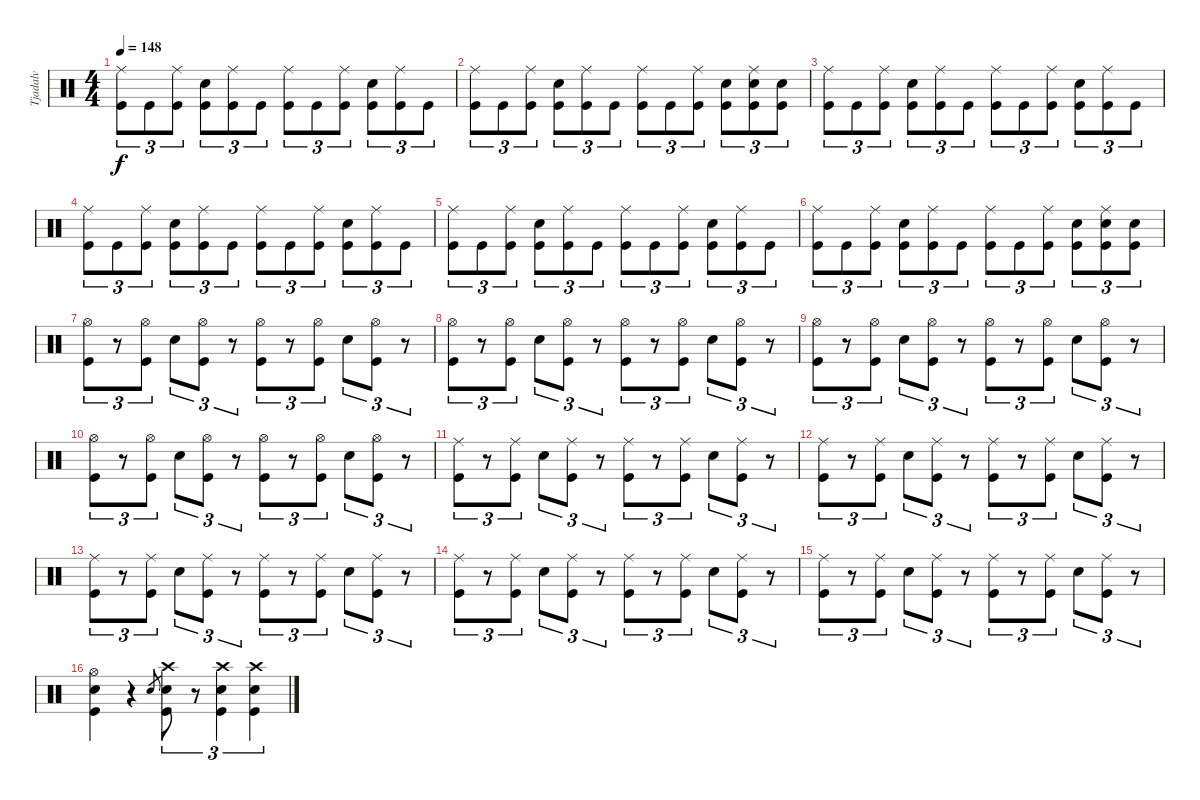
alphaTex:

\track ("Tjadalv    ( Drum )" "Tjadalv   ") {instrument percussion}
\staff {score}
\articulation defaults
\ts (4 4)
\tempo 148
\clef neutral
\ks c
("Ride (middle)" "Kick (hit)").8{tu (3 2) dy f} "Kick (hit)".8{tu (3 2)} ("Ride (middle)" "Kick (hit)").8{tu (3 2)} ("Electric Snare (hit)" "Kick (hit)").8{tu (3 2)} ("Ride (middle)" "Kick (hit)").8{tu (3 2)} "Kick (hit)".8{tu (3 2)} ("Ride (middle)" "Kick (hit)").8{tu (3 2)} "Kick (hit)".8{tu (3 2)} ("Ride (middle)" "Kick (hit)").8{tu (3 2)} ("Electric Snare (hit)" "Kick (hit)").8{tu (3 2)} ("Ride (middle)" "Kick (hit)").8{tu (3 2)} "Kick (hit)".8{tu (3 2)} |
("Ride (middle)" "Kick (hit)").8{tu (3 2)} "Kick (hit)".8{tu (3 2)} ("Ride (middle)" "Kick (hit)").8{tu (3 2)} ("Electric Snare (hit)" "Kick (hit)").8{tu (3 2)} ("Ride (middle)" "Kick (hit)").8{tu (3 2)} "Kick (hit)".8{tu (3 2)} ("Ride (middle)" "Kick (hit)").8{tu (3 2)} "Kick (hit)".8{tu (3 2)} ("Ride (middle)" "Kick (hit)").8{tu (3 2)} ("Electric Snare (hit)" "Kick (hit)").8{tu (3 2)} ("Ride (middle)" "Electric Snare (hit)" "Kick (hit)").8{tu (3 2)} ("Electric Snare (hit)" "Kick (hit)").8{tu (3 2)} |
("Ride (middle)" "Kick (hit)").8{tu (3 2)} "Kick (hit)".8{tu (3 2)} ("Ride (middle)" "Kick (hit)").8{tu (3 2)} ("Electric Snare (hit)" "Kick (hit)").8{tu (3 2)} ("Ride (middle)" "Kick (hit)").8{tu (3 2)} "Kick (hit)".8{tu (3 2)} ("Ride (middle)" "Kick (hit)").8{tu (3 2)} "Kick (hit)".8{tu (3 2)} ("Ride (middle)" "Kick (hit)").8{tu (3 2)} ("Electric Snare (hit)" "Kick (hit)").8{tu (3 2)} ("Ride (middle)" "Kick (hit)").8{tu (3 2)} "Kick (hit)".8{tu (3 2)} |
("Ride (middle)" "Kick (hit)").8{tu (3 2)} "Kick (hit)".8{tu (3 2)} ("Ride (middle)" "Kick (hit)").8{tu (3 2)} ("Electric Snare (hit)" "Kick (hit)").8{tu (3 2)} ("Ride (middle)" "Kick (hit)").8{tu (3 2)} "Kick (hit)".8{tu (3 2)} ("Ride (middle)" "Kick (hit)").8{tu (3 2)} "Kick (hit)".8{tu (3 2)} ("Ride (middle)" "Kick (hit)").8{tu (3 2)} ("Electric Snare (hit)" "Kick (hit)").8{tu (3 2)} ("Ride (middle)" "Kick (hit)").8{tu (3 2)} "Kick (hit)".8{tu (3 2)} |
("Ride (middle)" "Kick (hit)").8{tu (3 2)} "Kick (hit)".8{tu (3 2)} ("Ride (middle)" "Kick (hit)").8{tu (3 2)} ("Electric Snare (hit)" "Kick (hit)").8{tu (3 2)} ("Ride (middle)" "Kick (hit)").8{tu (3 2)} "Kick (hit)".8{tu (3 2)} ("Ride (middle)" "Kick (hit)").8{tu (3 2)} "Kick (hit)".8{tu (3 2)} ("Ride (middle)" "Kick (hit)").8{tu (3 2)} ("Electric Snare (hit)" "Kick (hit)").8{tu (3 2)} ("Ride (middle)" "Kick (hit)").8{tu (3 2)} "Kick (hit)".8{tu (3 2)} |
("Ride (middle)" "Kick (hit)").8{tu (3 2)} "Kick (hit)".8{tu (3 2)} ("Ride (middle)" "Kick (hit)").8{tu (3 2)} ("Electric Snare (hit)" "Kick (hit)").8{tu (3 2)} ("Ride (middle)" "Kick (hit)").8{tu (3 2)} "Kick (hit)".8{tu (3 2)} ("Ride (middle)" "Kick (hit)").8{tu (3 2)} "Kick (hit)".8{tu (3 2)} ("Ride (middle)" "Kick (hit)").8{tu (3 2)} ("Electric Snare (hit)" "Kick (hit)").8{tu (3 2)} ("Ride (middle)" "Electric Snare (hit)" "Kick (hit)").8{tu (3 2)} ("Electric Snare (hit)" "Kick (hit)").8{tu (3 2)} |
("Hi-Hat (open)" "Kick (hit)").8{tu (3 2)} r.8{tu (3 2)} ("Hi-Hat (open)" "Kick (hit)").8{tu (3 2)} "Electric Snare (hit)".8{tu (3 2)} ("Hi-Hat (open)" "Kick (hit)").8{tu (3 2)} r.8{tu (3 2)} ("Hi-Hat (open)" "Kick (hit)").8{tu (3 2)} r.8{tu (3 2)} ("Hi-Hat (open)" "Kick (hit)").8{tu (3 2)} "Electric Snare (hit)".8{tu (3 2)} ("Hi-Hat (open)" "Kick (hit)").8{tu (3 2)} r.8{tu (3 2)} |
("Hi-Hat (open)" "Kick (hit)").8{tu (3 2)} r.8{tu (3 2)} ("Hi-Hat (open)" "Kick (hit)").8{tu (3 2)} "Electric Snare (hit)".8{tu (3 2)} ("Hi-Hat (open)" "Kick (hit)").8{tu (3 2)} r.8{tu (3 2)} ("Hi-Hat (open)" "Kick (hit)").8{tu (3 2)} r.8{tu (3 2)} ("Hi-Hat (open)" "Kick (hit)").8{tu (3 2)} "Electric Snare (hit)".8{tu (3 2)} ("Hi-Hat (open)" "Kick (hit)").8{tu (3 2)} r.8{tu (3 2)} |
("Hi-Hat (open)" "Kick (hit)").8{tu (3 2)} r.8{tu (3 2)} ("Hi-Hat (open)" "Kick (hit)").8{tu (3 2)} "Electric Snare (hit)".8{tu (3 2)} ("Hi-Hat (open)" "Kick (hit)").8{tu (3 2)} r.8{tu (3 2)} ("Hi-Hat (open)" "Kick (hit)").8{tu (3 2)} r.8{tu (3 2)} ("Hi-Hat (open)" "Kick (hit)").8{tu (3 2)} "Electric Snare (hit)".8{tu (3 2)} ("Hi-Hat (open)" "Kick (hit)").8{tu (3 2)} r.8{tu (3 2)} |
("Hi-Hat (open)" "Kick (hit)").8{tu (3 2)} r.8{tu (3 2)} ("Hi-Hat (open)" "Kick (hit)").8{tu (3 2)} "Electric Snare (hit)".8{tu (3 2)} ("Hi-Hat (open)" "Kick (hit)").8{tu (3 2)} r.8{tu (3 2)} ("Hi-Hat (open)" "Kick (hit)").8{tu (3 2)} r.8{tu (3 2)} ("Hi-Hat (open)" "Kick (hit)").8{tu (3 2)} "Electric Snare (hit)".8{tu (3 2)} ("Hi-Hat (open)" "Kick (hit)").8{tu (3 2)} r.8{tu (3 2)} |
("Ride (middle)" "Kick (hit)").8{tu (3 2)} r.8{tu (3 2)} ("Ride (middle)" "Kick (hit)").8{tu (3 2)} "Electric Snare (hit)".8{tu (3 2)} ("Ride (middle)" "Kick (hit)").8{tu (3 2)} r.8{tu (3 2)} ("Ride (middle)" "Kick (hit)").8{tu (3 2)} r.8{tu (3 2)} ("Ride (middle)" "Kick (hit)").8{tu (3 2)} "Electric Snare (hit)".8{tu (3 2)} ("Ride (middle)" "Kick (hit)").8{tu (3 2)} r.8{tu (3 2)} |
("Ride (middle)" "Kick (hit)").8{tu (3 2)} r.8{tu (3 2)} ("Ride (middle)" "Kick (hit)").8{tu (3 2)} "Electric Snare (hit)".8{tu (3 2)} ("Ride (middle)" "Kick (hit)").8{tu (3 2)} r.8{tu (3 2)} ("Ride (middle)" "Kick (hit)").8{tu (3 2)} r.8{tu (3 2)} ("Ride (middle)" "Kick (hit)").8{tu (3 2)} "Electric Snare (hit)".8{tu (3 2)} ("Ride (middle)" "Kick (hit)").8{tu (3 2)} r.8{tu (3 2)} |
("Ride (middle)" "Kick (hit)").8{tu (3 2)} r.8{tu (3 2)} ("Ride (middle)" "Kick (hit)").8{tu (3 2)} "Electric Snare (hit)".8{tu (3 2)} ("Ride (middle)" "Kick (hit)").8{tu (3 2)} r.8{tu (3 2)} ("Ride (middle)" "Kick (hit)").8{tu (3 2)} r.8{tu (3 2)} ("Ride (middle)" "Kick (hit)").8{tu (3 2)} "Electric Snare (hit)".8{tu (3 2)} ("Ride (middle)" "Kick (hit)").8{tu (3 2)} r.8{tu (3 2)} |
("Ride (middle)" "Kick (hit)").8{tu (3 2)} r.8{tu (3 2)} ("Ride (middle)" "Kick (hit)").8{tu (3 2)} "Electric Snare (hit)".8{tu (3 2)} ("Ride (middle)" "Kick (hit)").8{tu (3 2)} r.8{tu (3 2)} ("Ride (middle)" "Kick (hit)").8{tu (3 2)} r.8{tu (3 2)} ("Ride (middle)" "Kick (hit)").8{tu (3 2)} "Electric Snare (hit)".8{tu (3 2)} ("Ride (middle)" "Kick (hit)").8{tu (3 2)} r.8{tu (3 2)} |
("Ride (middle)" "Kick (hit)").8{tu (3 2)} r.8{tu (3 2)} ("Ride (middle)" "Kick (hit)").8{tu (3 2)} "Electric Snare (hit)".8{tu (3 2)} ("Ride (middle)" "Kick (hit)").8{tu (3 2)} r.8{tu (3 2)} ("Ride (middle)" "Kick (hit)").8{tu (3 2)} r.8{tu (3 2)} ("Ride (middle)" "Kick (hit)").8{tu (3 2)} "Electric Snare (hit)".8{tu (3 2)} ("Ride (middle)" "Kick (hit)").8{tu (3 2)} r.8{tu (3 2)} |
("Hi-Hat (open)" "Electric Snare (hit)" "Kick (hit)").4 r.4 "Electric Snare (hit)".8{gr} ("Crash high (hit)" "Electric Snare (hit)" "Kick (hit)").8{tu (3 2)} r.8{tu (3 2)} ("Crash high (hit)" "Electric Snare (hit)" "Kick (hit)").4{tu (3 2)} ("Crash high (hit)" "Electric Snare (hit)" "Kick (hit)").4{tu (3 2)}
